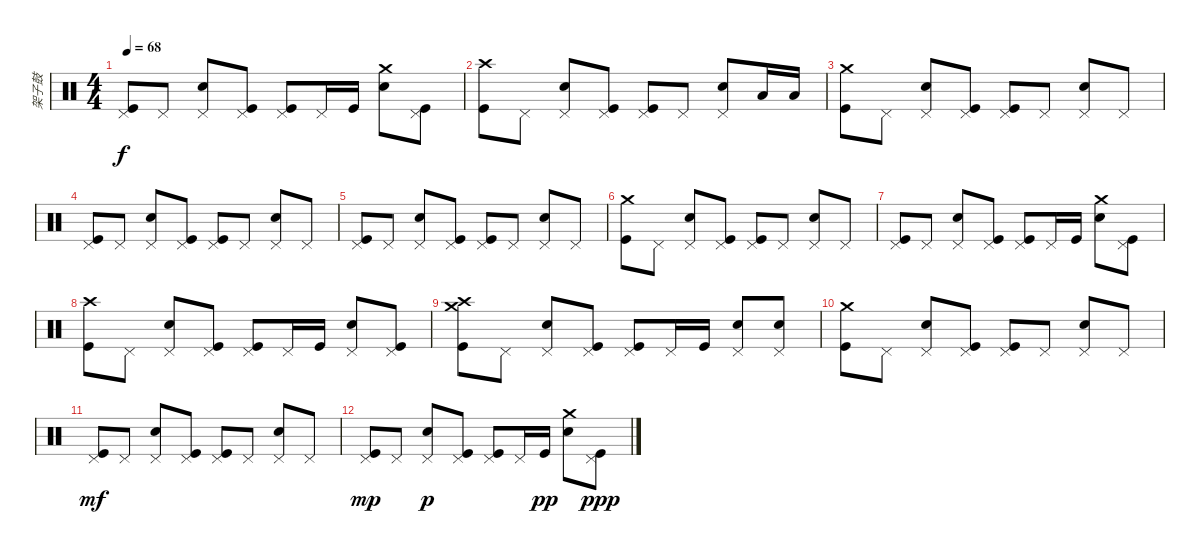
\track ("架子鼓" "架子鼓") {instrument percussion}
\staff {score}
\articulation defaults
\ts (4 4)
\tempo 68
\clef neutral
\ks c
("Pedal Hi-Hat (hit)" "Kick (hit)").8{dy f} "Pedal Hi-Hat (hit)".8 ("Pedal Hi-Hat (hit)" "Snare (hit) 2").8 ("Pedal Hi-Hat (hit)" "Kick (hit)").8 ("Pedal Hi-Hat (hit)" "Kick (hit)").8 "Pedal Hi-Hat (hit)".16 "Kick (hit)".16 ("Crash medium (hit)" "Snare (hit) 2").8 ("Pedal Hi-Hat (hit)" "Kick (hit)").8 |
("Crash high (hit)" "Kick (hit)").8 "Pedal Hi-Hat (hit)".8 ("Pedal Hi-Hat (hit)" "Snare (hit) 2").8 ("Pedal Hi-Hat (hit)" "Kick (hit)").8 ("Pedal Hi-Hat (hit)" "Kick (hit)").8 "Pedal Hi-Hat (hit)".8 ("Pedal Hi-Hat (hit)" "Snare (hit) 2").8 "Low Tom (hit)".16 "Low Tom (hit)".16 |
("Crash medium (hit)" "Kick (hit)").8 "Pedal Hi-Hat (hit)".8 ("Pedal Hi-Hat (hit)" "Snare (hit) 2").8 ("Pedal Hi-Hat (hit)" "Kick (hit)").8 ("Pedal Hi-Hat (hit)" "Kick (hit)").8 "Pedal Hi-Hat (hit)".8 ("Pedal Hi-Hat (hit)" "Snare (hit) 2").8 "Pedal Hi-Hat (hit)".8 |
("Pedal Hi-Hat (hit)" "Kick (hit)").8 "Pedal Hi-Hat (hit)".8 ("Pedal Hi-Hat (hit)" "Snare (hit) 2").8 ("Pedal Hi-Hat (hit)" "Kick (hit)").8 ("Pedal Hi-Hat (hit)" "Kick (hit)").8 "Pedal Hi-Hat (hit)".8 ("Pedal Hi-Hat (hit)" "Snare (hit) 2").8 "Pedal Hi-Hat (hit)".8 |
("Pedal Hi-Hat (hit)" "Kick (hit)").8 "Pedal Hi-Hat (hit)".8 ("Pedal Hi-Hat (hit)" "Snare (hit) 2").8 ("Pedal Hi-Hat (hit)" "Kick (hit)").8 ("Pedal Hi-Hat (hit)" "Kick (hit)").8 "Pedal Hi-Hat (hit)".8 ("Pedal Hi-Hat (hit)" "Snare (hit) 2").8 "Pedal Hi-Hat (hit)".8 |
("Crash medium (hit)" "Kick (hit)").8 "Pedal Hi-Hat (hit)".8 ("Pedal Hi-Hat (hit)" "Snare (hit) 2").8 ("Pedal Hi-Hat (hit)" "Kick (hit)").8 ("Pedal Hi-Hat (hit)" "Kick (hit)").8 "Pedal Hi-Hat (hit)".8 ("Pedal Hi-Hat (hit)" "Snare (hit) 2").8 "Pedal Hi-Hat (hit)".8 |
("Pedal Hi-Hat (hit)" "Kick (hit)").8 "Pedal Hi-Hat (hit)".8 ("Pedal Hi-Hat (hit)" "Snare (hit) 2").8 ("Pedal Hi-Hat (hit)" "Kick (hit)").8 ("Pedal Hi-Hat (hit)" "Kick (hit)").8 "Pedal Hi-Hat (hit)".16 "Kick (hit)".16 ("Crash medium (hit)" "Snare (hit) 2").8 ("Pedal Hi-Hat (hit)" "Kick (hit)").8 |
("Crash high (hit)" "Kick (hit)").8 "Pedal Hi-Hat (hit)".8 ("Pedal Hi-Hat (hit)" "Snare (hit) 2").8 ("Pedal Hi-Hat (hit)" "Kick (hit)").8 ("Pedal Hi-Hat (hit)" "Kick (hit)").8 "Pedal Hi-Hat (hit)".16 "Kick (hit)".16 ("Pedal Hi-Hat (hit)" "Snare (hit) 2").8 ("Pedal Hi-Hat (hit)" "Kick (hit)").8 |
("Crash medium (hit)" "Crash high (hit)" "Kick (hit)").8 "Pedal Hi-Hat (hit)".8 ("Pedal Hi-Hat (hit)" "Snare (hit) 2").8 ("Pedal Hi-Hat (hit)" "Kick (hit)").8 ("Pedal Hi-Hat (hit)" "Kick (hit)").8 "Pedal Hi-Hat (hit)".16 "Kick (hit)".16 ("Pedal Hi-Hat (hit)" "Snare (hit) 2").8 ("Pedal Hi-Hat (hit)" "Snare (hit) 2").8 |
("Crash medium (hit)" "Kick (hit)").8 "Pedal Hi-Hat (hit)".8 ("Pedal Hi-Hat (hit)" "Snare (hit) 2").8 ("Pedal Hi-Hat (hit)" "Kick (hit)").8 ("Pedal Hi-Hat (hit)" "Kick (hit)").8 "Pedal Hi-Hat (hit)".8 ("Pedal Hi-Hat (hit)" "Snare (hit) 2").8 "Pedal Hi-Hat (hit)".8 |
("Pedal Hi-Hat (hit)" "Kick (hit)").8{dy mf} "Pedal Hi-Hat (hit)".8 ("Pedal Hi-Hat (hit)" "Snare (hit) 2").8 ("Pedal Hi-Hat (hit)" "Kick (hit)").8 ("Pedal Hi-Hat (hit)" "Kick (hit)").8 "Pedal Hi-Hat (hit)".8 ("Pedal Hi-Hat (hit)" "Snare (hit) 2").8 "Pedal Hi-Hat (hit)".8 |
("Pedal Hi-Hat (hit)" "Kick (hit)").8{dy mp} "Pedal Hi-Hat (hit)".8 ("Pedal Hi-Hat (hit)" "Snare (hit) 2").8{dy p} ("Pedal Hi-Hat (hit)" "Kick (hit)").8 ("Pedal Hi-Hat (hit)" "Kick (hit)").8 "Pedal Hi-Hat (hit)".16 "Kick (hit)".16{dy pp} ("Crash medium (hit)" "Snare (hit) 2").8 ("Pedal Hi-Hat (hit)" "Kick (hit)").8{dy ppp}
